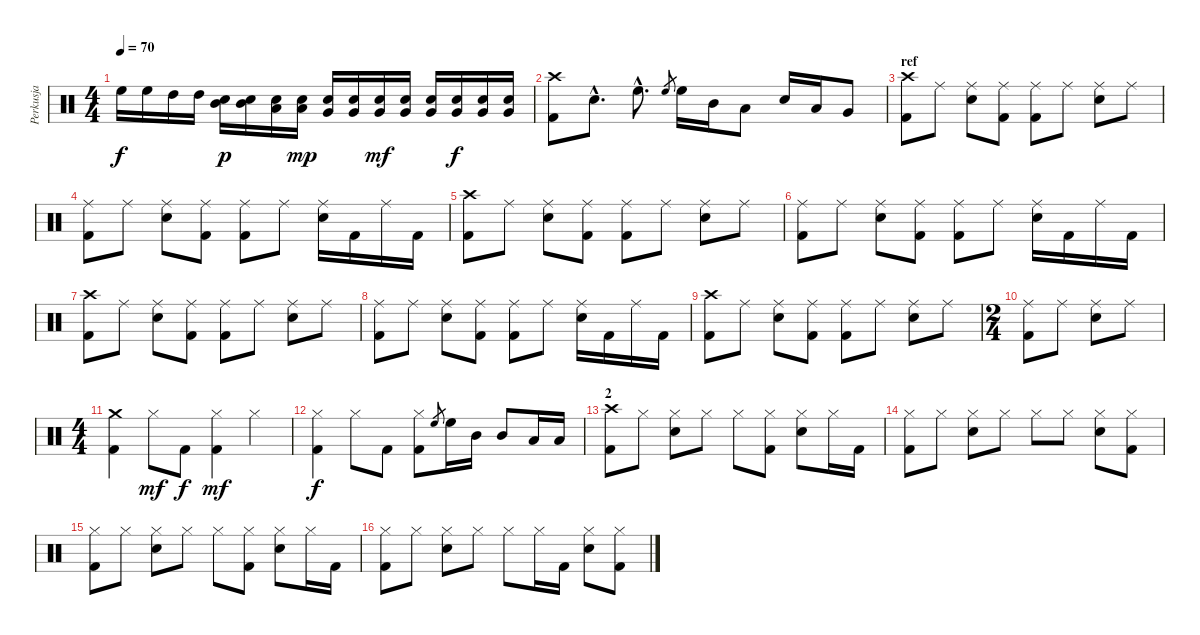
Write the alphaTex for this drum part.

\track ("Perkusja" "Perkusja") {instrument percussion}
\staff {score}
\articulation defaults
\ts (4 4)
\tempo 70
\clef neutral
\ks c "High Floor Tom (hit)".16{dy f} "High Floor Tom (hit)".16 "High Tom (hit)".16 "High Tom (hit)".16
("Snare (hit) 2" "Mid Tom (hit)").16{dy p} ("Snare (hit) 2" "Mid Tom (hit)").16 ("Snare (hit) 2" "Low Tom (hit)").16 ("Snare (hit) 2" "Low Tom (hit)").16{dy mp} ("Snare (hit) 2" "Very Low Tom (hit)").16 ("Snare (hit) 2" "Very Low Tom (hit)").16 ("Snare (hit) 2" "Very Low Tom (hit)").16{dy mf} ("Snare (hit) 2" "Very Low Tom (hit)").16 ("Snare (hit) 2" "Very Low Tom (hit)").16 ("Snare (hit) 2" "Very Low Tom (hit)").16{dy f} ("Snare (hit) 2" "Very Low Tom (hit)").16 ("Snare (hit) 2" "Very Low Tom (hit)").16 |
("Crash high (hit)" "Kick (hit) 2").8 "Snare (hit) 2"{hac}.8{d} "High Floor Tom (hit)"{hac}.8{d} "High Floor Tom (hit)".8{gr} "High Floor Tom (hit)".16 "Mid Tom (hit)".16 "Low Tom (hit)".8 "Snare (hit) 2".16 "Low Tom (hit)".16 "Very Low Tom (hit)".8 |
\section ("" "ref")
("Crash high (hit)" "Kick (hit) 2").8 "Ride (middle)".8 ("Ride (middle)" "Snare (hit) 2").8 ("Ride (middle)" "Kick (hit) 2").8 ("Ride (middle)" "Kick (hit) 2").8 "Ride (middle)".8 ("Ride (middle)" "Snare (hit) 2").8 "Ride (middle)".8 |
("Ride (middle)" "Kick (hit) 2").8 "Ride (middle)".8 ("Ride (middle)" "Snare (hit) 2").8 ("Ride (middle)" "Kick (hit) 2").8 ("Ride (middle)" "Kick (hit) 2").8 "Ride (middle)".8 ("Ride (middle)" "Snare (hit) 2").16 "Kick (hit) 2".16 "Ride (middle)".16 "Kick (hit) 2".16 |
("Crash high (hit)" "Kick (hit) 2").8 "Ride (middle)".8 ("Ride (middle)" "Snare (hit) 2").8 ("Ride (middle)" "Kick (hit) 2").8 ("Ride (middle)" "Kick (hit) 2").8 "Ride (middle)".8 ("Ride (middle)" "Snare (hit) 2").8 "Ride (middle)".8 |
("Ride (middle)" "Kick (hit) 2").8 "Ride (middle)".8 ("Ride (middle)" "Snare (hit) 2").8 ("Ride (middle)" "Kick (hit) 2").8 ("Ride (middle)" "Kick (hit) 2").8 "Ride (middle)".8 ("Ride (middle)" "Snare (hit) 2").16 "Kick (hit) 2".16 "Ride (middle)".16 "Kick (hit) 2".16 |
("Crash high (hit)" "Kick (hit) 2").8 "Ride (middle)".8 ("Ride (middle)" "Snare (hit) 2").8 ("Ride (middle)" "Kick (hit) 2").8 ("Ride (middle)" "Kick (hit) 2").8 "Ride (middle)".8 ("Ride (middle)" "Snare (hit) 2").8 "Ride (middle)".8 |
("Ride (middle)" "Kick (hit) 2").8 "Ride (middle)".8 ("Ride (middle)" "Snare (hit) 2").8 ("Ride (middle)" "Kick (hit) 2").8 ("Ride (middle)" "Kick (hit) 2").8 "Ride (middle)".8 ("Ride (middle)" "Snare (hit) 2").16 "Kick (hit) 2".16 "Ride (middle)".16 "Kick (hit) 2".16 |
("Crash high (hit)" "Kick (hit) 2").8 "Ride (middle)".8 ("Ride (middle)" "Snare (hit) 2").8 ("Ride (middle)" "Kick (hit) 2").8 ("Ride (middle)" "Kick (hit) 2").8 "Ride (middle)".8 ("Ride (middle)" "Snare (hit) 2").8 "Ride (middle)".8 |
\ts (2 4)
("Ride (middle)" "Kick (hit) 2").8 "Ride (middle)".8 ("Ride (middle)" "Snare (hit) 2").8 "Ride (middle)".8 |
\ts (4 4)
("Crash medium (hit)" "Kick (hit) 2").4 "Hi-Hat (closed)".8{dy mf} "Kick (hit) 2".8{dy f} ("Hi-Hat (closed)" "Kick (hit) 2").4{dy mf} "Hi-Hat (closed)".4 |
("Hi-Hat (closed)" "Kick (hit) 2").4{dy f} "Hi-Hat (closed)".8 "Kick (hit) 2".8 ("Hi-Hat (closed)" "Kick (hit) 2").8 "High Floor Tom (hit)".8{gr} "High Floor Tom (hit)".16 "Mid Tom (hit)".16 "Mid Tom (hit)".8 "Low Tom (hit)".16 "Low Tom (hit)".16 |
\section ("" "2")
("Crash high (hit)" "Kick (hit) 2").8 "Hi-Hat (closed)".8 ("Hi-Hat (closed)" "Snare (hit) 2").8 "Hi-Hat (closed)".8 "Hi-Hat (closed)".8 ("Hi-Hat (closed)" "Kick (hit) 2").8 ("Hi-Hat (closed)" "Snare (hit) 2").8 "Hi-Hat (closed)".16 "Kick (hit) 2".16 |
("Hi-Hat (closed)" "Kick (hit) 2").8 "Hi-Hat (closed)".8 ("Hi-Hat (closed)" "Snare (hit) 2").8 "Hi-Hat (closed)".8 "Hi-Hat (closed)".8 "Hi-Hat (closed)".8 ("Hi-Hat (closed)" "Snare (hit) 2").8 ("Hi-Hat (closed)" "Kick (hit) 2").8 |
("Hi-Hat (closed)" "Kick (hit) 2").8 "Hi-Hat (closed)".8 ("Hi-Hat (closed)" "Snare (hit) 2").8 "Hi-Hat (closed)".8 "Hi-Hat (closed)".8 ("Hi-Hat (closed)" "Kick (hit) 2").8 ("Hi-Hat (closed)" "Snare (hit) 2").8 "Hi-Hat (closed)".16 "Kick (hit) 2".16 |
("Hi-Hat (closed)" "Kick (hit) 2").8 "Hi-Hat (closed)".8 ("Hi-Hat (closed)" "Snare (hit) 2").8 "Hi-Hat (closed)".8 "Hi-Hat (closed)".8 "Hi-Hat (closed)".16 "Kick (hit) 2".16 ("Hi-Hat (closed)" "Snare (hit) 2").8 ("Hi-Hat (closed)" "Kick (hit) 2").8
